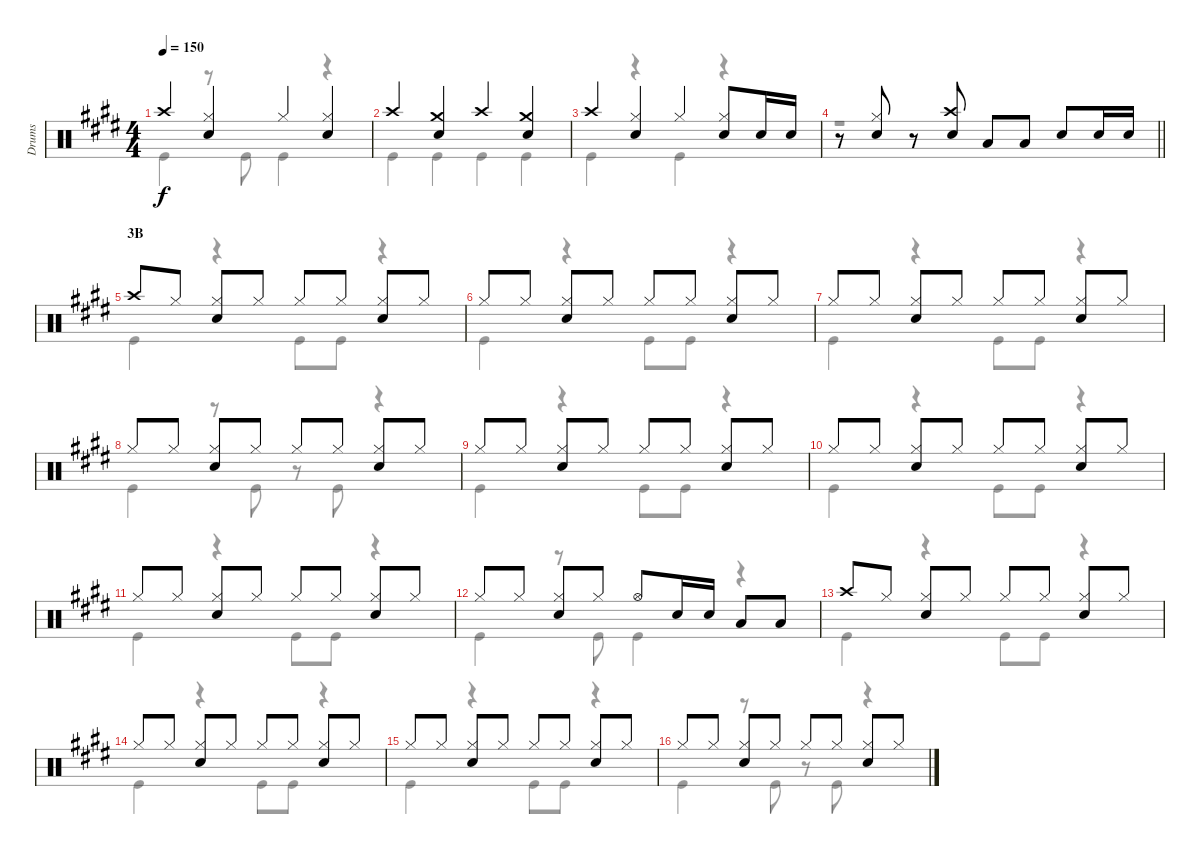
\track ("Drums" "Drums") {instrument percussion}
\staff {score}
\articulation defaults
\voice
\ts (4 4)
\tempo 150
\clef neutral
\ks e "Crash high (hit)".4{dy f}
("Hi-Hat (closed)" "Snare (hit) 2").4 "Hi-Hat (closed)".4 ("Hi-Hat (closed)" "Snare (hit) 2").4 |
"Crash high (hit)".4 ("Crash medium (hit)" "Snare (hit) 2").4 "Crash high (hit)".4 ("Crash medium (hit)" "Snare (hit) 2").4 |
"Crash high (hit)".4 ("Hi-Hat (closed)" "Snare (hit) 2").4 "Hi-Hat (closed)".4 ("Hi-Hat (closed)" "Snare (hit) 2").8 "Snare (hit) 2".16 "Snare (hit) 2".16 |
\barLineRight lightlight
r.8 ("Hi-Hat (closed)" "Snare (hit) 2").8 r.8 ("Crash high (hit)" "Snare (hit) 2").8 "Low Tom (hit)".8 "Low Tom (hit)".8 "Snare (hit) 2".8 "Snare (hit) 2".16 "Snare (hit) 2".16 |
\section ("" "3B")
"Crash high (hit)".8 "Hi-Hat (closed)".8 ("Hi-Hat (closed)" "Snare (hit) 2").8 "Hi-Hat (closed)".8 "Hi-Hat (closed)".8 "Hi-Hat (closed)".8 ("Hi-Hat (closed)" "Snare (hit) 2").8 "Hi-Hat (closed)".8 |
"Hi-Hat (closed)".8 "Hi-Hat (closed)".8 ("Hi-Hat (closed)" "Snare (hit) 2").8 "Hi-Hat (closed)".8 "Hi-Hat (closed)".8 "Hi-Hat (closed)".8 ("Hi-Hat (closed)" "Snare (hit) 2").8 "Hi-Hat (closed)".8 |
"Hi-Hat (closed)".8 "Hi-Hat (closed)".8 ("Hi-Hat (closed)" "Snare (hit) 2").8 "Hi-Hat (closed)".8 "Hi-Hat (closed)".8 "Hi-Hat (closed)".8 ("Hi-Hat (closed)" "Snare (hit) 2").8 "Hi-Hat (closed)".8 |
"Hi-Hat (closed)".8 "Hi-Hat (closed)".8 ("Hi-Hat (closed)" "Snare (hit) 2").8 "Hi-Hat (closed)".8 "Hi-Hat (closed)".8 "Hi-Hat (closed)".8 ("Hi-Hat (closed)" "Snare (hit) 2").8 "Hi-Hat (closed)".8 |
"Hi-Hat (closed)".8 "Hi-Hat (closed)".8 ("Hi-Hat (closed)" "Snare (hit) 2").8 "Hi-Hat (closed)".8 "Hi-Hat (closed)".8 "Hi-Hat (closed)".8 ("Hi-Hat (closed)" "Snare (hit) 2").8 "Hi-Hat (closed)".8 |
"Hi-Hat (closed)".8 "Hi-Hat (closed)".8 ("Hi-Hat (closed)" "Snare (hit) 2").8 "Hi-Hat (closed)".8 "Hi-Hat (closed)".8 "Hi-Hat (closed)".8 ("Hi-Hat (closed)" "Snare (hit) 2").8 "Hi-Hat (closed)".8 |
"Hi-Hat (closed)".8 "Hi-Hat (closed)".8 ("Hi-Hat (closed)" "Snare (hit) 2").8 "Hi-Hat (closed)".8 "Hi-Hat (closed)".8 "Hi-Hat (closed)".8 ("Hi-Hat (closed)" "Snare (hit) 2").8 "Hi-Hat (closed)".8 |
"Hi-Hat (closed)".8 "Hi-Hat (closed)".8 ("Hi-Hat (closed)" "Snare (hit) 2").8 "Hi-Hat (closed)".8 "Hi-Hat (open)".8 "Snare (hit) 2".16 "Snare (hit) 2".16 "Low Tom (hit)".8 "Low Tom (hit)".8 |
"Crash high (hit)".8 "Hi-Hat (closed)".8 ("Hi-Hat (closed)" "Snare (hit) 2").8 "Hi-Hat (closed)".8 "Hi-Hat (closed)".8 "Hi-Hat (closed)".8 ("Hi-Hat (closed)" "Snare (hit) 2").8 "Hi-Hat (closed)".8 |
"Hi-Hat (closed)".8 "Hi-Hat (closed)".8 ("Hi-Hat (closed)" "Snare (hit) 2").8 "Hi-Hat (closed)".8 "Hi-Hat (closed)".8 "Hi-Hat (closed)".8 ("Hi-Hat (closed)" "Snare (hit) 2").8 "Hi-Hat (closed)".8 |
"Hi-Hat (closed)".8 "Hi-Hat (closed)".8 ("Hi-Hat (closed)" "Snare (hit) 2").8 "Hi-Hat (closed)".8 "Hi-Hat (closed)".8 "Hi-Hat (closed)".8 ("Hi-Hat (closed)" "Snare (hit) 2").8 "Hi-Hat (closed)".8 |
"Hi-Hat (closed)".8 "Hi-Hat (closed)".8 ("Hi-Hat (closed)" "Snare (hit) 2").8 "Hi-Hat (closed)".8 "Hi-Hat (closed)".8 "Hi-Hat (closed)".8 ("Hi-Hat (closed)" "Snare (hit) 2").8 "Hi-Hat (closed)".8
\voice
\clef neutral
\ottava regular
\simile none
\ks e "Kick (hit)".4{dy f}
r.8 "Kick (hit)".8 "Kick (hit)".4 r.4 |
"Kick (hit)".4 "Kick (hit)".4 "Kick (hit)".4 "Kick (hit)".4 |
"Kick (hit)".4 r.4 "Kick (hit)".4 r.4 |
\barLineRight lightlight
r.1 |
"Kick (hit)".4 r.4 "Kick (hit)".8 "Kick (hit)".8 r.4 |
"Kick (hit)".4 r.4 "Kick (hit)".8 "Kick (hit)".8 r.4 |
"Kick (hit)".4 r.4 "Kick (hit)".8 "Kick (hit)".8 r.4 |
"Kick (hit)".4 r.8 "Kick (hit)".8 r.8 "Kick (hit)".8 r.4 |
"Kick (hit)".4 r.4 "Kick (hit)".8 "Kick (hit)".8 r.4 |
"Kick (hit)".4 r.4 "Kick (hit)".8 "Kick (hit)".8 r.4 |
"Kick (hit)".4 r.4 "Kick (hit)".8 "Kick (hit)".8 r.4 |
"Kick (hit)".4 r.8 "Kick (hit)".8 "Kick (hit)".4 r.4 |
"Kick (hit)".4 r.4 "Kick (hit)".8 "Kick (hit)".8 r.4 |
"Kick (hit)".4 r.4 "Kick (hit)".8 "Kick (hit)".8 r.4 |
"Kick (hit)".4 r.4 "Kick (hit)".8 "Kick (hit)".8 r.4 |
"Kick (hit)".4 r.8 "Kick (hit)".8 r.8 "Kick (hit)".8 r.4
